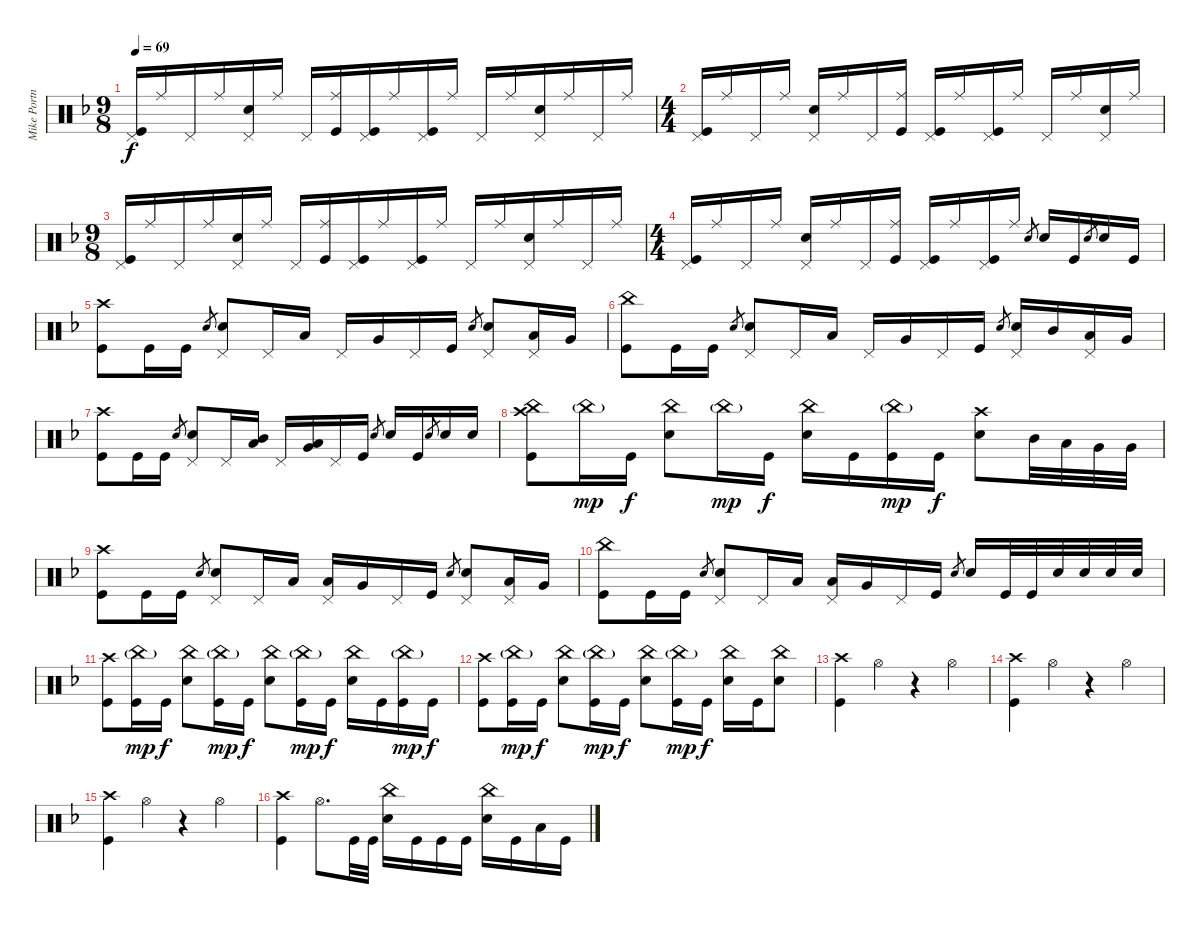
\track ("Mike Portnoy - Drums" "Mike Portn") {instrument percussion}
\staff {score}
\articulation defaults
\ts (9 8)
\tempo 69
\clef neutral
\ks dminor
("Pedal Hi-Hat (hit)" "Kick (hit)").16{dy f} "Ride (middle)".16 "Pedal Hi-Hat (hit)".16 "Ride (middle)".16 ("Pedal Hi-Hat (hit)" "Snare (hit) 2").16 "Ride (middle)".16 "Pedal Hi-Hat (hit)".16 ("Ride (middle)" "Kick (hit)").16 ("Pedal Hi-Hat (hit)" "Kick (hit)").16 "Ride (middle)".16 ("Pedal Hi-Hat (hit)" "Kick (hit)").16 "Ride (middle)".16 "Pedal Hi-Hat (hit)".16 "Ride (middle)".16 ("Pedal Hi-Hat (hit)" "Snare (hit) 2").16 "Ride (middle)".16 "Pedal Hi-Hat (hit)".16 "Ride (middle)".16 |
\ts (4 4)
("Pedal Hi-Hat (hit)" "Kick (hit)").16 "Ride (middle)".16 "Pedal Hi-Hat (hit)".16 "Ride (middle)".16 ("Pedal Hi-Hat (hit)" "Snare (hit) 2").16 "Ride (middle)".16 "Pedal Hi-Hat (hit)".16 ("Ride (middle)" "Kick (hit)").16 ("Pedal Hi-Hat (hit)" "Kick (hit)").16 "Ride (middle)".16 ("Pedal Hi-Hat (hit)" "Kick (hit)").16 "Ride (middle)".16 "Pedal Hi-Hat (hit)".16 "Ride (middle)".16 ("Pedal Hi-Hat (hit)" "Snare (hit) 2").16 "Ride (middle)".16 |
\ts (9 8)
("Pedal Hi-Hat (hit)" "Kick (hit)").16 "Ride (middle)".16 "Pedal Hi-Hat (hit)".16 "Ride (middle)".16 ("Pedal Hi-Hat (hit)" "Snare (hit) 2").16 "Ride (middle)".16 "Pedal Hi-Hat (hit)".16 ("Ride (middle)" "Kick (hit)").16 ("Pedal Hi-Hat (hit)" "Kick (hit)").16 "Ride (middle)".16 ("Pedal Hi-Hat (hit)" "Kick (hit)").16 "Ride (middle)".16 "Pedal Hi-Hat (hit)".16 "Ride (middle)".16 ("Pedal Hi-Hat (hit)" "Snare (hit) 2").16 "Ride (middle)".16 "Pedal Hi-Hat (hit)".16 "Ride (middle)".16 |
\ts (4 4)
("Pedal Hi-Hat (hit)" "Kick (hit)").16 "Ride (middle)".16 "Pedal Hi-Hat (hit)".16 "Ride (middle)".16 ("Pedal Hi-Hat (hit)" "Snare (hit) 2").16 "Ride (middle)".16 "Pedal Hi-Hat (hit)".16 ("Ride (middle)" "Kick (hit)").16 ("Pedal Hi-Hat (hit)" "Kick (hit)").16 "Ride (middle)".16 ("Pedal Hi-Hat (hit)" "Kick (hit)").16 "Ride (middle)".16 "Snare (hit) 2".8{gr} "Snare (hit) 2".16 "Kick (hit)".16 "Snare (hit) 2".8{gr} "Snare (hit) 2".16 "Kick (hit)".16 |
("Crash high (hit)" "Kick (hit)").8 "Kick (hit)".16 "Kick (hit)".16 "Snare (hit) 2".8{gr} ("Pedal Hi-Hat (hit)" "Snare (hit) 2").8 "Pedal Hi-Hat (hit)".16 "Low Tom (hit)".16 "Pedal Hi-Hat (hit)".16 "Very Low Tom (hit)".16 "Pedal Hi-Hat (hit)".16 "Kick (hit)".16 "Snare (hit) 2".8{gr} ("Pedal Hi-Hat (hit)" "Snare (hit) 2").8 ("Pedal Hi-Hat (hit)" "Low Tom (hit)").16 "Very Low Tom (hit)".16 |
("China (hit)" "Kick (hit)").8 "Kick (hit)".16 "Kick (hit)".16 "Snare (hit) 2".8{gr} ("Pedal Hi-Hat (hit)" "Snare (hit) 2").8 "Pedal Hi-Hat (hit)".16 "Low Tom (hit)".16 "Pedal Hi-Hat (hit)".16 "Very Low Tom (hit)".16 "Pedal Hi-Hat (hit)".16 "Kick (hit)".16 "Snare (hit) 2".8{gr} ("Pedal Hi-Hat (hit)" "Snare (hit) 2").16 "Mid Tom (hit)".16 ("Pedal Hi-Hat (hit)" "Low Tom (hit)").16 "Very Low Tom (hit)".16 |
("Crash high (hit)" "Kick (hit)").8 "Kick (hit)".16 "Kick (hit)".16 "Snare (hit) 2".8{gr} ("Pedal Hi-Hat (hit)" "Snare (hit) 2").8 "Pedal Hi-Hat (hit)".16 ("Low Tom (hit)" "Mid Tom (hit)").16 "Pedal Hi-Hat (hit)".16 ("Very Low Tom (hit)" "Low Tom (hit)").16 "Pedal Hi-Hat (hit)".16 "Kick (hit)".16 "Snare (hit) 2".8{gr} "Snare (hit) 2".16 "Kick (hit)".16 "Snare (hit) 2".8{gr} "Snare (hit) 2".16 "Snare (hit) 2".16 |
("China (hit)" "Crash high (hit)" "Kick (hit)").8 "China (hit)"{g}.16{dy mp} "Kick (hit)".16{dy f} ("China (hit)" "Snare (hit) 2").8 "China (hit)"{g}.16{dy mp} "Kick (hit)".16{dy f} ("China (hit)" "Snare (hit) 2").16 "Kick (hit)".16 ("China (hit)"{g} "Kick (hit)").16{dy mp} "Kick (hit)".16{dy f} ("Crash high (hit)" "Snare (hit) 2").8 "Mid Tom (hit)".32 "Low Tom (hit)".32 "Very Low Tom (hit)".32 "Very Low Tom (hit)".32 |
("Crash high (hit)" "Kick (hit)").8 "Kick (hit)".16 "Kick (hit)".16 "Snare (hit) 2".8{gr} ("Pedal Hi-Hat (hit)" "Snare (hit) 2").8 "Pedal Hi-Hat (hit)".16 "Low Tom (hit)".16 ("Pedal Hi-Hat (hit)" "Low Tom (hit)").16 "Very Low Tom (hit)".16 "Pedal Hi-Hat (hit)".16 "Kick (hit)".16 "Snare (hit) 2".8{gr} ("Pedal Hi-Hat (hit)" "Snare (hit) 2").8 ("Pedal Hi-Hat (hit)" "Low Tom (hit)").16 "Very Low Tom (hit)".16 |
("China (hit)" "Kick (hit)").8 "Kick (hit)".16 "Kick (hit)".16 "Snare (hit) 2".8{gr} ("Pedal Hi-Hat (hit)" "Snare (hit) 2").8 "Pedal Hi-Hat (hit)".16 "Low Tom (hit)".16 ("Pedal Hi-Hat (hit)" "Low Tom (hit)").16 "Very Low Tom (hit)".16 "Pedal Hi-Hat (hit)".16 "Kick (hit)".16 "Snare (hit) 2".8{gr} "Snare (hit) 2".16 "Kick (hit)".32 "Kick (hit)".32 "Snare (hit) 2".32 "Snare (hit) 2".32 "Snare (hit) 2".32 "Snare (hit) 2".32 |
("Crash high (hit)" "Kick (hit)").8 ("China (hit)"{g} "Kick (hit)").16{dy mp} "Kick (hit)".16{dy f} ("China (hit)" "Snare (hit) 2").8 ("China (hit)"{g} "Kick (hit)").16{dy mp} "Kick (hit)".16{dy f} ("China (hit)" "Snare (hit) 2").8 ("China (hit)"{g} "Kick (hit)").16{dy mp} "Kick (hit)".16{dy f} ("China (hit)" "Snare (hit) 2").16 "Kick (hit)".16 ("China (hit)"{g} "Kick (hit)").16{dy mp} "Kick (hit)".16{dy f} |
("Crash high (hit)" "Kick (hit)").8 ("China (hit)"{g} "Kick (hit)").16{dy mp} "Kick (hit)".16{dy f} ("China (hit)" "Snare (hit) 2").8 ("China (hit)"{g} "Kick (hit)").16{dy mp} "Kick (hit)".16{dy f} ("China (hit)" "Snare (hit) 2").8 ("China (hit)"{g} "Kick (hit)").16{dy mp} "Kick (hit)".16{dy f} ("China (hit)" "Snare (hit) 2").16 "Kick (hit)".16 ("China (hit)" "Snare (hit) 2").8 |
("Crash high (hit)" "Kick (hit)").4 "Hi-Hat (open)".4 r.4 "Hi-Hat (open)".4 |
("Crash high (hit)" "Kick (hit)").4 "Hi-Hat (open)".4 r.4 "Hi-Hat (open)".4 |
("Crash high (hit)" "Kick (hit)").4 "Hi-Hat (open)".4 r.4 "Hi-Hat (open)".4 |
("Crash high (hit)" "Kick (hit)").4 "Hi-Hat (open)".8{d} "Kick (hit)".32 "Kick (hit)".32 ("China (hit)" "Snare (hit) 2").16 "Kick (hit)".16 "Kick (hit)".16 "Kick (hit)".16 ("China (hit)" "Snare (hit) 2").16 "Kick (hit)".16 "Low Tom (hit)".16 "Kick (hit)".16
